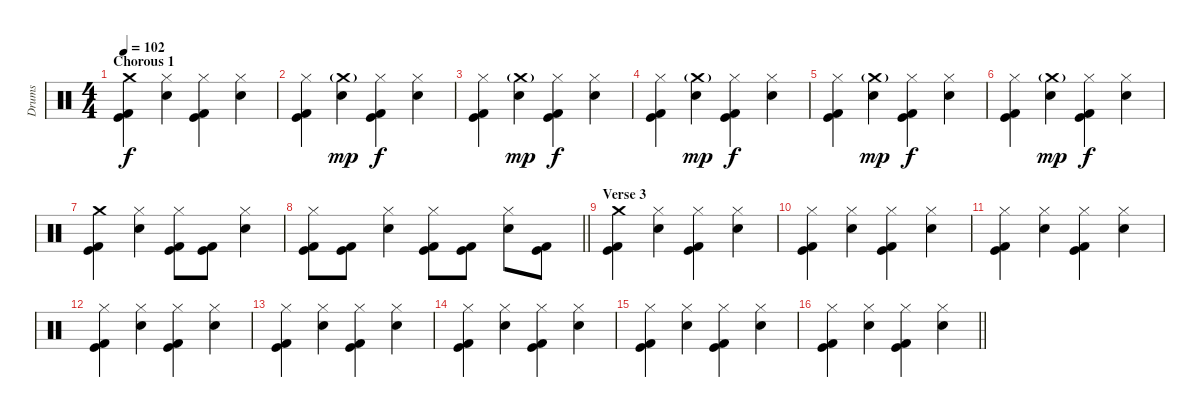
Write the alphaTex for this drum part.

\track ("Drums" "Drums") {instrument percussion}
\staff {score}
\articulation defaults
\ts (4 4)
\section ("" "Chorous 1")
\tempo 102
\clef neutral
\ks c
("Crash medium (hit)" "Kick (hit)" "Kick (hit) 2").4{dy f} ("Hi-Hat (closed)" "Electric Snare (hit)").4 ("Hi-Hat (closed)" "Kick (hit)" "Kick (hit) 2").4 ("Hi-Hat (closed)" "Electric Snare (hit)").4 |
("Hi-Hat (closed)" "Kick (hit)" "Kick (hit) 2").4 ("Crash medium (hit)"{g} "Electric Snare (hit)").4{dy mp} ("Hi-Hat (closed)" "Kick (hit)" "Kick (hit) 2").4{dy f} ("Hi-Hat (closed)" "Electric Snare (hit)").4 |
("Hi-Hat (closed)" "Kick (hit)" "Kick (hit) 2").4 ("Crash medium (hit)"{g} "Electric Snare (hit)").4{dy mp} ("Hi-Hat (closed)" "Kick (hit)" "Kick (hit) 2").4{dy f} ("Hi-Hat (closed)" "Electric Snare (hit)").4 |
("Hi-Hat (closed)" "Kick (hit)" "Kick (hit) 2").4 ("Crash medium (hit)"{g} "Electric Snare (hit)").4{dy mp} ("Hi-Hat (closed)" "Kick (hit)" "Kick (hit) 2").4{dy f} ("Hi-Hat (closed)" "Electric Snare (hit)").4 |
("Hi-Hat (closed)" "Kick (hit)" "Kick (hit) 2").4 ("Crash medium (hit)"{g} "Electric Snare (hit)").4{dy mp} ("Hi-Hat (closed)" "Kick (hit)" "Kick (hit) 2").4{dy f} ("Hi-Hat (closed)" "Electric Snare (hit)").4 |
("Hi-Hat (closed)" "Kick (hit)" "Kick (hit) 2").4 ("Crash medium (hit)"{g} "Electric Snare (hit)").4{dy mp} ("Hi-Hat (closed)" "Kick (hit)" "Kick (hit) 2").4{dy f} ("Hi-Hat (closed)" "Electric Snare (hit)").4 |
("Crash medium (hit)" "Kick (hit)" "Kick (hit) 2").4 ("Hi-Hat (closed)" "Electric Snare (hit)").4 ("Hi-Hat (closed)" "Kick (hit)" "Kick (hit) 2").8 ("Kick (hit)" "Kick (hit) 2").8 ("Hi-Hat (closed)" "Electric Snare (hit)").4 |
\barLineRight lightlight
("Hi-Hat (closed)" "Kick (hit)" "Kick (hit) 2").8 ("Kick (hit)" "Kick (hit) 2").8 ("Hi-Hat (closed)" "Electric Snare (hit)").4 ("Hi-Hat (closed)" "Kick (hit)" "Kick (hit) 2").8 ("Kick (hit)" "Kick (hit) 2").8 ("Hi-Hat (closed)" "Electric Snare (hit)").8 ("Kick (hit)" "Kick (hit) 2").8 |
\section ("" "Verse 3")
("Crash medium (hit)" "Kick (hit)" "Kick (hit) 2").4 ("Hi-Hat (closed)" "Electric Snare (hit)").4 ("Hi-Hat (closed)" "Kick (hit)" "Kick (hit) 2").4 ("Hi-Hat (closed)" "Electric Snare (hit)").4 |
("Hi-Hat (closed)" "Kick (hit)" "Kick (hit) 2").4 ("Hi-Hat (closed)" "Electric Snare (hit)").4 ("Hi-Hat (closed)" "Kick (hit)" "Kick (hit) 2").4 ("Hi-Hat (closed)" "Electric Snare (hit)").4 |
("Hi-Hat (closed)" "Kick (hit)" "Kick (hit) 2").4 ("Hi-Hat (closed)" "Electric Snare (hit)").4 ("Hi-Hat (closed)" "Kick (hit)" "Kick (hit) 2").4 ("Hi-Hat (closed)" "Electric Snare (hit)").4 |
("Hi-Hat (closed)" "Kick (hit)" "Kick (hit) 2").4 ("Hi-Hat (closed)" "Electric Snare (hit)").4 ("Hi-Hat (closed)" "Kick (hit)" "Kick (hit) 2").4 ("Hi-Hat (closed)" "Electric Snare (hit)").4 |
("Hi-Hat (closed)" "Kick (hit)" "Kick (hit) 2").4 ("Hi-Hat (closed)" "Electric Snare (hit)").4 ("Hi-Hat (closed)" "Kick (hit)" "Kick (hit) 2").4 ("Hi-Hat (closed)" "Electric Snare (hit)").4 |
("Hi-Hat (closed)" "Kick (hit)" "Kick (hit) 2").4 ("Hi-Hat (closed)" "Electric Snare (hit)").4 ("Hi-Hat (closed)" "Kick (hit)" "Kick (hit) 2").4 ("Hi-Hat (closed)" "Electric Snare (hit)").4 |
("Hi-Hat (closed)" "Kick (hit)" "Kick (hit) 2").4 ("Hi-Hat (closed)" "Electric Snare (hit)").4 ("Hi-Hat (closed)" "Kick (hit)" "Kick (hit) 2").4 ("Hi-Hat (closed)" "Electric Snare (hit)").4 |
\barLineRight lightlight
("Hi-Hat (closed)" "Kick (hit)" "Kick (hit) 2").4 ("Hi-Hat (closed)" "Electric Snare (hit)").4 ("Hi-Hat (closed)" "Kick (hit)" "Kick (hit) 2").4 ("Hi-Hat (closed)" "Electric Snare (hit)").4
